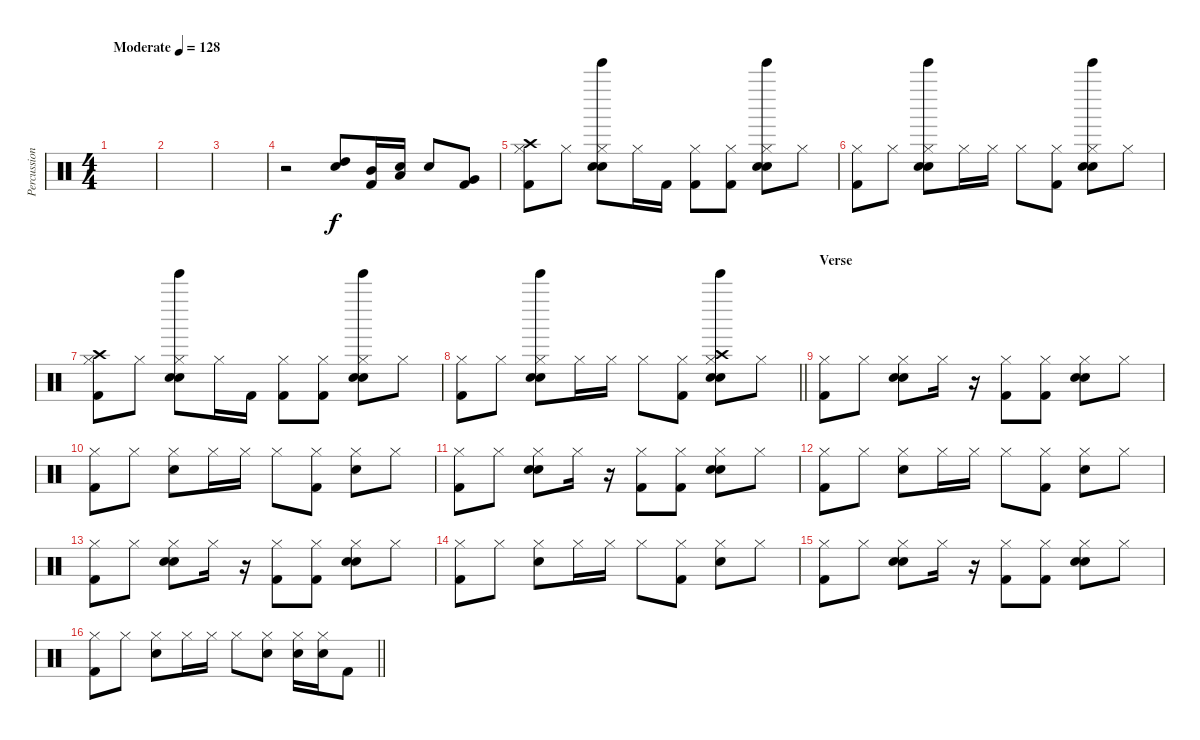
\track ("Percussion" "Percussion") {instrument percussion}
\staff {score}
\articulation defaults
\ts (4 4)
\tempo (128 "Moderate")
\clef neutral
\ks c
|
|
|
r.2 ("High Tom (hit)" "Electric Snare (hit)").8 ("Mid Tom (hit)" "Kick (hit) 2").16 ("Low Tom (hit)" "Electric Snare (hit)").16 "Electric Snare (hit)".8 ("Very Low Tom (hit)" "Kick (hit) 2").8 |
("Hi-Hat (closed)" "Crash high (hit)" "Kick (hit) 2").8 "Hi-Hat (closed)".8 ("Hi-Hat (closed)" "Tinkle Bell (hit)" "Hand Clap (hit)" "Electric Snare (hit)").8 "Hi-Hat (closed)".16 "Kick (hit) 2".16 ("Hi-Hat (closed)" "Kick (hit) 2").8 ("Hi-Hat (closed)" "Kick (hit) 2").8 ("Hi-Hat (closed)" "Tinkle Bell (hit)" "Hand Clap (hit)" "Electric Snare (hit)").8 "Hi-Hat (closed)".8 |
("Hi-Hat (closed)" "Kick (hit) 2").8 "Hi-Hat (closed)".8 ("Hi-Hat (closed)" "Tinkle Bell (hit)" "Hand Clap (hit)" "Electric Snare (hit)").8 "Hi-Hat (closed)".16 "Hi-Hat (closed)".16 "Hi-Hat (closed)".8 ("Hi-Hat (closed)" "Kick (hit) 2").8 ("Hi-Hat (closed)" "Tinkle Bell (hit)" "Hand Clap (hit)" "Electric Snare (hit)").8 "Hi-Hat (closed)".8 |
("Hi-Hat (closed)" "Crash high (hit)" "Kick (hit) 2").8 "Hi-Hat (closed)".8 ("Hi-Hat (closed)" "Tinkle Bell (hit)" "Hand Clap (hit)" "Electric Snare (hit)").8 "Hi-Hat (closed)".16 "Kick (hit) 2".16 ("Hi-Hat (closed)" "Kick (hit) 2").8 ("Hi-Hat (closed)" "Kick (hit) 2").8 ("Hi-Hat (closed)" "Tinkle Bell (hit)" "Hand Clap (hit)" "Electric Snare (hit)").8 "Hi-Hat (closed)".8 |
\barLineRight lightlight
("Hi-Hat (closed)" "Kick (hit) 2").8 "Hi-Hat (closed)".8 ("Hi-Hat (closed)" "Tinkle Bell (hit)" "Hand Clap (hit)" "Electric Snare (hit)").8 "Hi-Hat (closed)".16 "Hi-Hat (closed)".16 "Hi-Hat (closed)".8 ("Hi-Hat (closed)" "Kick (hit) 2").8 ("Hi-Hat (closed)" "Tinkle Bell (hit)" "Hand Clap (hit)" "Electric Snare (hit)" "Crash high (hit)").8 "Hi-Hat (closed)".8 |
\section ("" "Verse")
("Hi-Hat (closed)" "Kick (hit) 2").8 "Hi-Hat (closed)".8 ("Hi-Hat (closed)" "Hand Clap (hit)" "Electric Snare (hit)").8 "Hi-Hat (closed)".16 r.16 ("Hi-Hat (closed)" "Kick (hit) 2").8 ("Hi-Hat (closed)" "Kick (hit) 2").8 ("Hi-Hat (closed)" "Hand Clap (hit)" "Electric Snare (hit)").8 "Hi-Hat (closed)".8 |
("Hi-Hat (closed)" "Kick (hit) 2").8 "Hi-Hat (closed)".8 ("Hi-Hat (closed)" "Electric Snare (hit)").8 "Hi-Hat (closed)".16 "Hi-Hat (closed)".16 "Hi-Hat (closed)".8 ("Hi-Hat (closed)" "Kick (hit) 2").8 ("Hi-Hat (closed)" "Electric Snare (hit)").8 "Hi-Hat (closed)".8 |
("Hi-Hat (closed)" "Kick (hit) 2").8 "Hi-Hat (closed)".8 ("Hi-Hat (closed)" "Hand Clap (hit)" "Electric Snare (hit)").8 "Hi-Hat (closed)".16 r.16 ("Hi-Hat (closed)" "Kick (hit) 2").8 ("Hi-Hat (closed)" "Kick (hit) 2").8 ("Hi-Hat (closed)" "Hand Clap (hit)" "Electric Snare (hit)").8 "Hi-Hat (closed)".8 |
("Hi-Hat (closed)" "Kick (hit) 2").8 "Hi-Hat (closed)".8 ("Hi-Hat (closed)" "Electric Snare (hit)").8 "Hi-Hat (closed)".16 "Hi-Hat (closed)".16 "Hi-Hat (closed)".8 ("Hi-Hat (closed)" "Kick (hit) 2").8 ("Hi-Hat (closed)" "Electric Snare (hit)").8 "Hi-Hat (closed)".8 |
("Hi-Hat (closed)" "Kick (hit) 2").8 "Hi-Hat (closed)".8 ("Hi-Hat (closed)" "Hand Clap (hit)" "Electric Snare (hit)").8 "Hi-Hat (closed)".16 r.16 ("Hi-Hat (closed)" "Kick (hit) 2").8 ("Hi-Hat (closed)" "Kick (hit) 2").8 ("Hi-Hat (closed)" "Hand Clap (hit)" "Electric Snare (hit)").8 "Hi-Hat (closed)".8 |
("Hi-Hat (closed)" "Kick (hit) 2").8 "Hi-Hat (closed)".8 ("Hi-Hat (closed)" "Electric Snare (hit)").8 "Hi-Hat (closed)".16 "Hi-Hat (closed)".16 "Hi-Hat (closed)".8 ("Hi-Hat (closed)" "Kick (hit) 2").8 ("Hi-Hat (closed)" "Electric Snare (hit)").8 "Hi-Hat (closed)".8 |
("Hi-Hat (closed)" "Kick (hit) 2").8 "Hi-Hat (closed)".8 ("Hi-Hat (closed)" "Hand Clap (hit)" "Electric Snare (hit)").8 "Hi-Hat (closed)".16 r.16 ("Hi-Hat (closed)" "Kick (hit) 2").8 ("Hi-Hat (closed)" "Kick (hit) 2").8 ("Hi-Hat (closed)" "Hand Clap (hit)" "Electric Snare (hit)").8 "Hi-Hat (closed)".8 |
\barLineRight lightlight
("Hi-Hat (closed)" "Kick (hit) 2").8 "Hi-Hat (closed)".8 ("Hi-Hat (closed)" "Electric Snare (hit)").8 "Hi-Hat (closed)".16 "Hi-Hat (closed)".16 "Hi-Hat (closed)".8 ("Hi-Hat (closed)" "Electric Snare (hit)").8 ("Hi-Hat (closed)" "Electric Snare (hit)").16 ("Hi-Hat (closed)" "Electric Snare (hit)").16 "Kick (hit) 2".8
